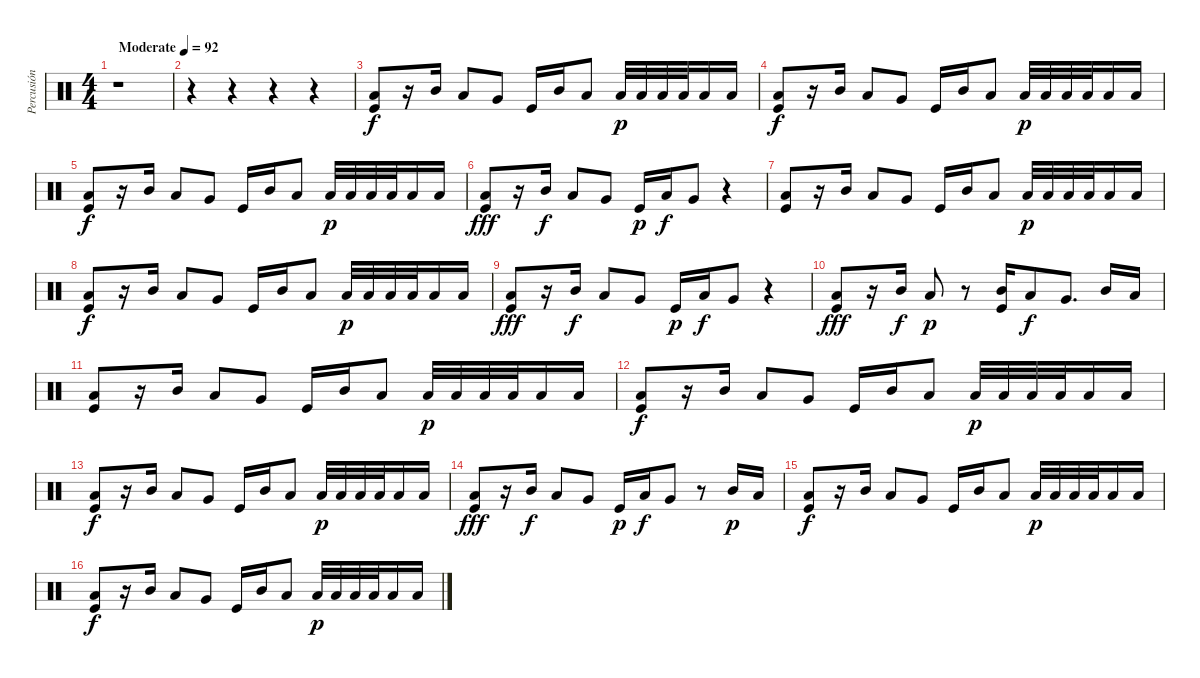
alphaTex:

\track ("Percusión" "Percusión") {instrument percussion}
\staff {score}
\articulation defaults
\ts (4 4)
\tempo (92 "Moderate")
\clef neutral
\ks c
r.1{dy f} |
r.4 r.4 r.4 r.4 |
("Low Tom (hit)" "Kick (hit)").8 r.16 "Mid Tom (hit)".16 "Low Tom (hit)".8 "Very Low Tom (hit)".8 "Kick (hit)".16 "Mid Tom (hit)".16 "Low Tom (hit)".8 "Low Floor Tom (hit)".32{dy p} "Low Floor Tom (hit)".32 "Low Floor Tom (hit)".32 "Low Floor Tom (hit)".32 "Low Floor Tom (hit)".16 "Low Floor Tom (hit)".16 |
("Low Tom (hit)" "Kick (hit)").8{dy f} r.16 "Mid Tom (hit)".16 "Low Tom (hit)".8 "Very Low Tom (hit)".8 "Kick (hit)".16 "Mid Tom (hit)".16 "Low Tom (hit)".8 "Low Floor Tom (hit)".32{dy p} "Low Floor Tom (hit)".32 "Low Floor Tom (hit)".32 "Low Floor Tom (hit)".32 "Low Floor Tom (hit)".16 "Low Floor Tom (hit)".16 |
("Low Tom (hit)" "Kick (hit)").8{dy f} r.16 "Mid Tom (hit)".16 "Low Tom (hit)".8 "Very Low Tom (hit)".8 "Kick (hit)".16 "Mid Tom (hit)".16 "Low Tom (hit)".8 "Low Floor Tom (hit)".32{dy p} "Low Floor Tom (hit)".32 "Low Floor Tom (hit)".32 "Low Floor Tom (hit)".32 "Low Floor Tom (hit)".16 "Low Floor Tom (hit)".16 |
("Low Tom (hit)" "Kick (hit)").8{dy fff} r.16 "Mid Tom (hit)".16{dy f} "Low Tom (hit)".8 "Very Low Tom (hit)".8 "Kick (hit)".16{dy p} "Low Tom (hit)".16{dy f} "Very Low Tom (hit)".8 r.4 |
("Low Tom (hit)" "Kick (hit)").8 r.16 "Mid Tom (hit)".16 "Low Tom (hit)".8 "Very Low Tom (hit)".8 "Kick (hit)".16 "Mid Tom (hit)".16 "Low Tom (hit)".8 "Low Floor Tom (hit)".32{dy p} "Low Floor Tom (hit)".32 "Low Floor Tom (hit)".32 "Low Floor Tom (hit)".32 "Low Floor Tom (hit)".16 "Low Floor Tom (hit)".16 |
("Low Tom (hit)" "Kick (hit)").8{dy f} r.16 "Mid Tom (hit)".16 "Low Tom (hit)".8 "Very Low Tom (hit)".8 "Kick (hit)".16 "Mid Tom (hit)".16 "Low Tom (hit)".8 "Low Floor Tom (hit)".32{dy p} "Low Floor Tom (hit)".32 "Low Floor Tom (hit)".32 "Low Floor Tom (hit)".32 "Low Floor Tom (hit)".16 "Low Floor Tom (hit)".16 |
("Low Tom (hit)" "Kick (hit)").8{dy fff} r.16 "Mid Tom (hit)".16{dy f} "Low Tom (hit)".8 "Very Low Tom (hit)".8 "Kick (hit)".16{dy p} "Low Tom (hit)".16{dy f} "Very Low Tom (hit)".8 r.4 |
("Low Tom (hit)" "Kick (hit)").8{dy fff} r.16 "Mid Tom (hit)".16{dy f} "Low Tom (hit)".8{dy p} r.8 ("Mid Tom (hit)" "Kick (hit)").16 "Low Tom (hit)".8{dy f} "Very Low Tom (hit)".8{d} "Mid Tom (hit)".16 "Low Tom (hit)".16 |
("Low Tom (hit)" "Kick (hit)").8 r.16 "Mid Tom (hit)".16 "Low Tom (hit)".8 "Very Low Tom (hit)".8 "Kick (hit)".16 "Mid Tom (hit)".16 "Low Tom (hit)".8 "Low Floor Tom (hit)".32{dy p} "Low Floor Tom (hit)".32 "Low Floor Tom (hit)".32 "Low Floor Tom (hit)".32 "Low Floor Tom (hit)".16 "Low Floor Tom (hit)".16 |
("Low Tom (hit)" "Kick (hit)").8{dy f} r.16 "Mid Tom (hit)".16 "Low Tom (hit)".8 "Very Low Tom (hit)".8 "Kick (hit)".16 "Mid Tom (hit)".16 "Low Tom (hit)".8 "Low Floor Tom (hit)".32{dy p} "Low Floor Tom (hit)".32 "Low Floor Tom (hit)".32 "Low Floor Tom (hit)".32 "Low Floor Tom (hit)".16 "Low Floor Tom (hit)".16 |
("Low Tom (hit)" "Kick (hit)").8{dy f} r.16 "Mid Tom (hit)".16 "Low Tom (hit)".8 "Very Low Tom (hit)".8 "Kick (hit)".16 "Mid Tom (hit)".16 "Low Tom (hit)".8 "Low Floor Tom (hit)".32{dy p} "Low Floor Tom (hit)".32 "Low Floor Tom (hit)".32 "Low Floor Tom (hit)".32 "Low Floor Tom (hit)".16 "Low Floor Tom (hit)".16 |
("Low Tom (hit)" "Kick (hit)").8{dy fff} r.16 "Mid Tom (hit)".16{dy f} "Low Tom (hit)".8 "Very Low Tom (hit)".8 "Kick (hit)".16{dy p} "Low Tom (hit)".16{dy f} "Very Low Tom (hit)".8 r.8 "Mid Tom (hit)".16{dy p} "Low Tom (hit)".16 |
("Low Tom (hit)" "Kick (hit)").8{dy f} r.16 "Mid Tom (hit)".16 "Low Tom (hit)".8 "Very Low Tom (hit)".8 "Kick (hit)".16 "Mid Tom (hit)".16 "Low Tom (hit)".8 "Low Floor Tom (hit)".32{dy p} "Low Floor Tom (hit)".32 "Low Floor Tom (hit)".32 "Low Floor Tom (hit)".32 "Low Floor Tom (hit)".16 "Low Floor Tom (hit)".16 |
("Low Tom (hit)" "Kick (hit)").8{dy f} r.16 "Mid Tom (hit)".16 "Low Tom (hit)".8 "Very Low Tom (hit)".8 "Kick (hit)".16 "Mid Tom (hit)".16 "Low Tom (hit)".8 "Low Floor Tom (hit)".32{dy p} "Low Floor Tom (hit)".32 "Low Floor Tom (hit)".32 "Low Floor Tom (hit)".32 "Low Floor Tom (hit)".16 "Low Floor Tom (hit)".16
